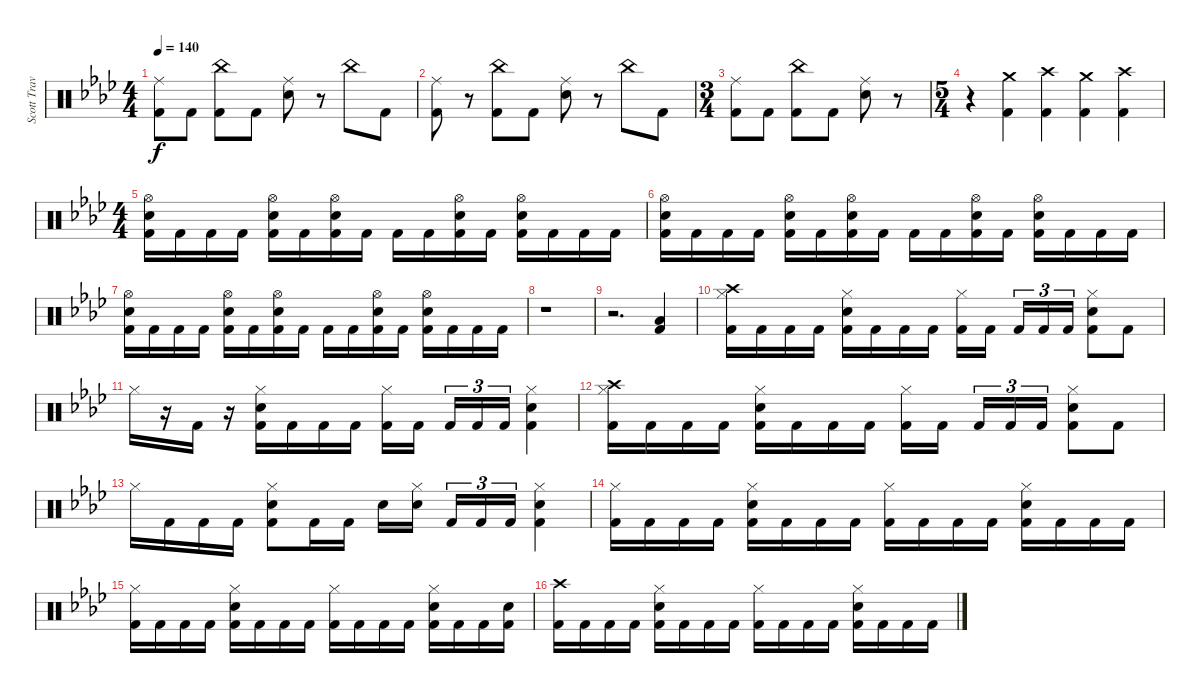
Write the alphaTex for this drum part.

\track ("Scott Travis" "Scott Trav") {instrument percussion}
\staff {score}
\articulation defaults
\ts (4 4)
\tempo 140
\clef neutral
\ks fminor
("Ride (middle)" "Kick (hit) 2").8{dy f} "Kick (hit) 2".8 ("China (hit)" "Kick (hit) 2").8 "Kick (hit) 2".8 ("Ride (middle)" "Electric Snare (hit)").8 r.8 "China (hit)".8 "Kick (hit) 2".8 |
("Ride (middle)" "Kick (hit) 2").8 r.8 ("China (hit)" "Kick (hit) 2").8 "Kick (hit) 2".8 ("Ride (middle)" "Electric Snare (hit)").8 r.8 "China (hit)".8 "Kick (hit) 2".8 |
\ts (3 4)
("Ride (middle)" "Kick (hit) 2").8 "Kick (hit) 2".8 ("China (hit)" "Kick (hit) 2").8 "Kick (hit) 2".8 ("Ride (middle)" "Electric Snare (hit)").8 r.8 |
\ts (5 4)
r.4 ("Crash medium (hit)" "Kick (hit) 2").4 ("Crash high (hit)" "Kick (hit) 2").4 ("Crash medium (hit)" "Kick (hit) 2").4 ("Crash high (hit)" "Kick (hit) 2").4 |
\ts (4 4)
("Hi-Hat (open)" "Electric Snare (hit)" "Kick (hit) 2").16 "Kick (hit) 2".16 "Kick (hit) 2".16 "Kick (hit) 2".16 ("Hi-Hat (open)" "Electric Snare (hit)" "Kick (hit) 2").16 "Kick (hit) 2".16 ("Hi-Hat (open)" "Electric Snare (hit)" "Kick (hit) 2").16 "Kick (hit) 2".16 "Kick (hit) 2".16 "Kick (hit) 2".16 ("Hi-Hat (open)" "Electric Snare (hit)" "Kick (hit) 2").16 "Kick (hit) 2".16 ("Hi-Hat (open)" "Electric Snare (hit)" "Kick (hit) 2").16 "Kick (hit) 2".16 "Kick (hit) 2".16 "Kick (hit) 2".16 |
("Hi-Hat (open)" "Electric Snare (hit)" "Kick (hit) 2").16 "Kick (hit) 2".16 "Kick (hit) 2".16 "Kick (hit) 2".16 ("Hi-Hat (open)" "Electric Snare (hit)" "Kick (hit) 2").16 "Kick (hit) 2".16 ("Hi-Hat (open)" "Electric Snare (hit)" "Kick (hit) 2").16 "Kick (hit) 2".16 "Kick (hit) 2".16 "Kick (hit) 2".16 ("Hi-Hat (open)" "Electric Snare (hit)" "Kick (hit) 2").16 "Kick (hit) 2".16 ("Hi-Hat (open)" "Electric Snare (hit)" "Kick (hit) 2").16 "Kick (hit) 2".16 "Kick (hit) 2".16 "Kick (hit) 2".16 |
("Hi-Hat (open)" "Electric Snare (hit)" "Kick (hit) 2").16 "Kick (hit) 2".16 "Kick (hit) 2".16 "Kick (hit) 2".16 ("Hi-Hat (open)" "Electric Snare (hit)" "Kick (hit) 2").16 "Kick (hit) 2".16 ("Hi-Hat (open)" "Electric Snare (hit)" "Kick (hit) 2").16 "Kick (hit) 2".16 "Kick (hit) 2".16 "Kick (hit) 2".16 ("Hi-Hat (open)" "Electric Snare (hit)" "Kick (hit) 2").16 "Kick (hit) 2".16 ("Hi-Hat (open)" "Electric Snare (hit)" "Kick (hit) 2").16 "Kick (hit) 2".16 "Kick (hit) 2".16 "Kick (hit) 2".16 |
r.1 |
r.2{d} ("Low Tom (hit)" "Kick (hit) 2").4 |
("Hi-Hat (closed)" "Crash high (hit)" "Kick (hit) 2").16 "Kick (hit) 2".16 "Kick (hit) 2".16 "Kick (hit) 2".16 ("Hi-Hat (closed)" "Electric Snare (hit)" "Kick (hit) 2").16 "Kick (hit) 2".16 "Kick (hit) 2".16 "Kick (hit) 2".16 ("Hi-Hat (closed)" "Kick (hit) 2").16 "Kick (hit) 2".16{beam splitsecondary} "Kick (hit) 2".16{tu (3 2)} "Kick (hit) 2".16{tu (3 2)} "Kick (hit) 2".16{tu (3 2)} ("Hi-Hat (closed)" "Electric Snare (hit)" "Kick (hit) 2").8 "Kick (hit) 2".8 |
"Hi-Hat (closed)".16 r.16 "Kick (hit) 2".16 r.16 ("Hi-Hat (closed)" "Electric Snare (hit)" "Kick (hit) 2").16 "Kick (hit) 2".16 "Kick (hit) 2".16 "Kick (hit) 2".16 ("Hi-Hat (closed)" "Kick (hit) 2").16 "Kick (hit) 2".16{beam splitsecondary} "Kick (hit) 2".16{tu (3 2)} "Kick (hit) 2".16{tu (3 2)} "Kick (hit) 2".16{tu (3 2)} ("Hi-Hat (closed)" "Electric Snare (hit)" "Kick (hit) 2").4 |
("Hi-Hat (closed)" "Crash high (hit)" "Kick (hit) 2").16 "Kick (hit) 2".16 "Kick (hit) 2".16 "Kick (hit) 2".16 ("Hi-Hat (closed)" "Electric Snare (hit)" "Kick (hit) 2").16 "Kick (hit) 2".16 "Kick (hit) 2".16 "Kick (hit) 2".16 ("Hi-Hat (closed)" "Kick (hit) 2").16 "Kick (hit) 2".16{beam splitsecondary} "Kick (hit) 2".16{tu (3 2)} "Kick (hit) 2".16{tu (3 2)} "Kick (hit) 2".16{tu (3 2)} ("Hi-Hat (closed)" "Electric Snare (hit)" "Kick (hit) 2").8 "Kick (hit) 2".8 |
"Hi-Hat (closed)".16 "Kick (hit) 2".16 "Kick (hit) 2".16 "Kick (hit) 2".16 ("Hi-Hat (closed)" "Electric Snare (hit)" "Kick (hit) 2").8 "Kick (hit) 2".16 "Kick (hit) 2".16 "Electric Snare (hit)".16 ("Hi-Hat (closed)" "Electric Snare (hit)").16{beam splitsecondary} "Kick (hit) 2".16{tu (3 2)} "Kick (hit) 2".16{tu (3 2)} "Kick (hit) 2".16{tu (3 2)} ("Hi-Hat (closed)" "Electric Snare (hit)" "Kick (hit) 2").4 |
("Hi-Hat (closed)" "Kick (hit) 2").16 "Kick (hit) 2".16 "Kick (hit) 2".16 "Kick (hit) 2".16 ("Hi-Hat (closed)" "Electric Snare (hit)" "Kick (hit) 2").16 "Kick (hit) 2".16 "Kick (hit) 2".16 "Kick (hit) 2".16 ("Hi-Hat (closed)" "Kick (hit) 2").16 "Kick (hit) 2".16 "Kick (hit) 2".16 "Kick (hit) 2".16 ("Hi-Hat (closed)" "Electric Snare (hit)" "Kick (hit) 2").16 "Kick (hit) 2".16 "Kick (hit) 2".16 "Kick (hit) 2".16 |
("Hi-Hat (closed)" "Kick (hit) 2").16 "Kick (hit) 2".16 "Kick (hit) 2".16 "Kick (hit) 2".16 ("Hi-Hat (closed)" "Electric Snare (hit)" "Kick (hit) 2").16 "Kick (hit) 2".16 "Kick (hit) 2".16 "Kick (hit) 2".16 ("Hi-Hat (closed)" "Kick (hit) 2").16 "Kick (hit) 2".16 "Kick (hit) 2".16 "Kick (hit) 2".16 ("Hi-Hat (closed)" "Electric Snare (hit)" "Kick (hit) 2").16 "Kick (hit) 2".16 "Kick (hit) 2".16 ("Electric Snare (hit)" "Kick (hit) 2").16 |
("Crash high (hit)" "Kick (hit) 2").16 "Kick (hit) 2".16 "Kick (hit) 2".16 "Kick (hit) 2".16 ("Hi-Hat (closed)" "Electric Snare (hit)" "Kick (hit) 2").16 "Kick (hit) 2".16 "Kick (hit) 2".16 "Kick (hit) 2".16 ("Hi-Hat (closed)" "Kick (hit) 2").16 "Kick (hit) 2".16 "Kick (hit) 2".16 "Kick (hit) 2".16 ("Hi-Hat (closed)" "Electric Snare (hit)" "Kick (hit) 2").16 "Kick (hit) 2".16 "Kick (hit) 2".16 "Kick (hit) 2".16
